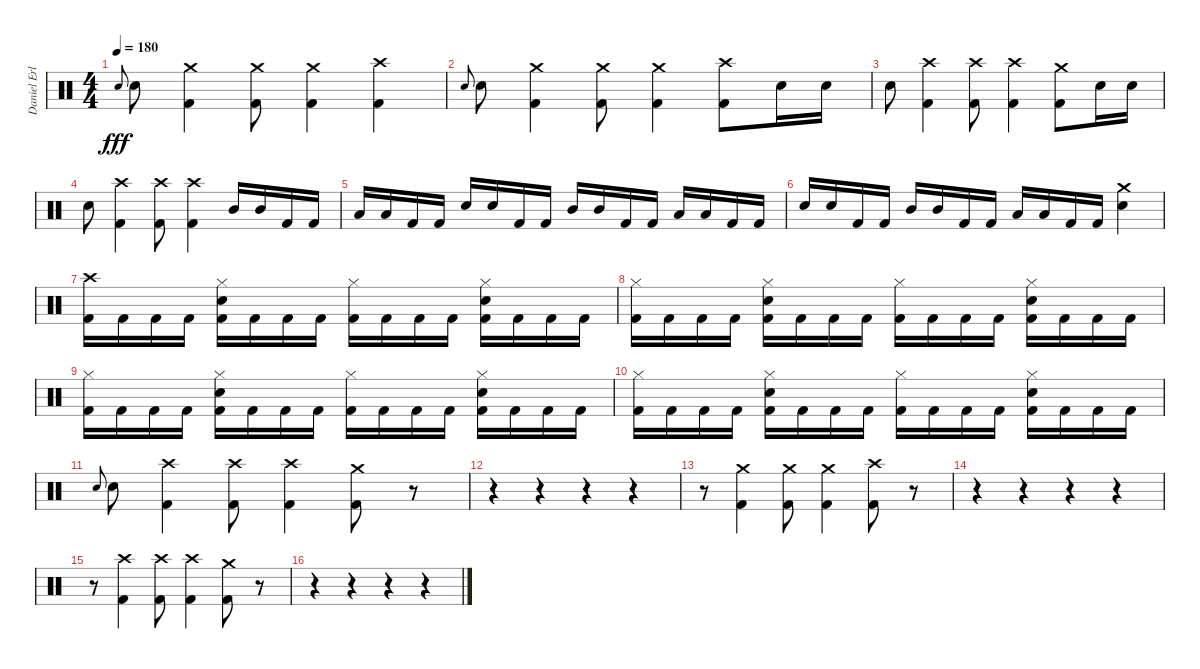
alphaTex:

\track ("Daniel Erlandsson" "Daniel Erl") {instrument percussion}
\staff {score}
\articulation defaults
\ts (4 4)
\tempo 180
\clef neutral
\ks c "Electric Snare (hit)".8{gr onbeat dy fff} "Electric Snare (hit)".8
("Crash medium (hit)" "Kick (hit) 2").4 ("Crash medium (hit)" "Kick (hit) 2").8 ("Crash medium (hit)" "Kick (hit) 2").4 ("Crash high (hit)" "Kick (hit) 2").4 |
"Electric Snare (hit)".8{gr onbeat} "Electric Snare (hit)".8 ("Crash medium (hit)" "Kick (hit) 2").4 ("Crash medium (hit)" "Kick (hit) 2").8 ("Crash medium (hit)" "Kick (hit) 2").4 ("Crash high (hit)" "Kick (hit) 2").8 "Electric Snare (hit)".16 "Electric Snare (hit)".16 |
"Electric Snare (hit)".8 ("Crash high (hit)" "Kick (hit) 2").4 ("Crash high (hit)" "Kick (hit) 2").8 ("Crash high (hit)" "Kick (hit) 2").4 ("Crash medium (hit)" "Kick (hit) 2").8 "Electric Snare (hit)".16 "Electric Snare (hit)".16 |
"Electric Snare (hit)".8 ("Crash high (hit)" "Kick (hit) 2").4 ("Crash high (hit)" "Kick (hit) 2").8 ("Crash high (hit)" "Kick (hit) 2").4 "Mid Tom (hit)".16 "Mid Tom (hit)".16 "Kick (hit) 2".16 "Kick (hit) 2".16 |
"Low Tom (hit)".16 "Low Tom (hit)".16 "Kick (hit) 2".16 "Kick (hit) 2".16 "Electric Snare (hit)".16 "Electric Snare (hit)".16 "Kick (hit) 2".16 "Kick (hit) 2".16 "Mid Tom (hit)".16 "Mid Tom (hit)".16 "Kick (hit) 2".16 "Kick (hit) 2".16 "Low Tom (hit)".16 "Low Tom (hit)".16 "Kick (hit) 2".16 "Kick (hit) 2".16 |
"Electric Snare (hit)".16 "Electric Snare (hit)".16 "Kick (hit) 2".16 "Kick (hit) 2".16 "Mid Tom (hit)".16 "Mid Tom (hit)".16 "Kick (hit) 2".16 "Kick (hit) 2".16 "Low Tom (hit)".16 "Low Tom (hit)".16 "Kick (hit) 2".16 "Kick (hit) 2".16 ("Crash medium (hit)" "Electric Snare (hit)").4 |
("Crash high (hit)" "Kick (hit) 2").16 "Kick (hit) 2".16 "Kick (hit) 2".16 "Kick (hit) 2".16 ("Hi-Hat (closed)" "Electric Snare (hit)" "Kick (hit) 2").16 "Kick (hit) 2".16 "Kick (hit) 2".16 "Kick (hit) 2".16 ("Hi-Hat (closed)" "Kick (hit) 2").16 "Kick (hit) 2".16 "Kick (hit) 2".16 "Kick (hit) 2".16 ("Hi-Hat (closed)" "Electric Snare (hit)" "Kick (hit) 2").16 "Kick (hit) 2".16 "Kick (hit) 2".16 "Kick (hit) 2".16 |
("Hi-Hat (closed)" "Kick (hit) 2").16 "Kick (hit) 2".16 "Kick (hit) 2".16 "Kick (hit) 2".16 ("Hi-Hat (closed)" "Electric Snare (hit)" "Kick (hit) 2").16 "Kick (hit) 2".16 "Kick (hit) 2".16 "Kick (hit) 2".16 ("Hi-Hat (closed)" "Kick (hit) 2").16 "Kick (hit) 2".16 "Kick (hit) 2".16 "Kick (hit) 2".16 ("Hi-Hat (closed)" "Electric Snare (hit)" "Kick (hit) 2").16 "Kick (hit) 2".16 "Kick (hit) 2".16 "Kick (hit) 2".16 |
("Hi-Hat (closed)" "Kick (hit) 2").16 "Kick (hit) 2".16 "Kick (hit) 2".16 "Kick (hit) 2".16 ("Hi-Hat (closed)" "Electric Snare (hit)" "Kick (hit) 2").16 "Kick (hit) 2".16 "Kick (hit) 2".16 "Kick (hit) 2".16 ("Hi-Hat (closed)" "Kick (hit) 2").16 "Kick (hit) 2".16 "Kick (hit) 2".16 "Kick (hit) 2".16 ("Hi-Hat (closed)" "Electric Snare (hit)" "Kick (hit) 2").16 "Kick (hit) 2".16 "Kick (hit) 2".16 "Kick (hit) 2".16 |
("Hi-Hat (closed)" "Kick (hit) 2").16 "Kick (hit) 2".16 "Kick (hit) 2".16 "Kick (hit) 2".16 ("Hi-Hat (closed)" "Electric Snare (hit)" "Kick (hit) 2").16 "Kick (hit) 2".16 "Kick (hit) 2".16 "Kick (hit) 2".16 ("Hi-Hat (closed)" "Kick (hit) 2").16 "Kick (hit) 2".16 "Kick (hit) 2".16 "Kick (hit) 2".16 ("Hi-Hat (closed)" "Electric Snare (hit)" "Kick (hit) 2").16 "Kick (hit) 2".16 "Kick (hit) 2".16 "Kick (hit) 2".16 |
"Electric Snare (hit)".8{gr onbeat} "Electric Snare (hit)".8 ("Crash high (hit)" "Kick (hit) 2").4 ("Crash high (hit)" "Kick (hit) 2").8 ("Crash high (hit)" "Kick (hit) 2").4 ("Crash medium (hit)" "Kick (hit) 2").8 r.8 |
r.4{volume 0} r.4 r.4 r.4 |
r.8 ("Crash medium (hit)" "Kick (hit) 2").4{volume 16} ("Crash medium (hit)" "Kick (hit) 2").8 ("Crash medium (hit)" "Kick (hit) 2").4 ("Crash high (hit)" "Kick (hit) 2").8 r.8 |
r.4{volume 0} r.4 r.4 r.4 |
r.8 ("Crash high (hit)" "Kick (hit) 2").4{volume 16} ("Crash high (hit)" "Kick (hit) 2").8 ("Crash high (hit)" "Kick (hit) 2").4 ("Crash medium (hit)" "Kick (hit) 2").8 r.8 |
r.4{volume 0} r.4 r.4 r.4
